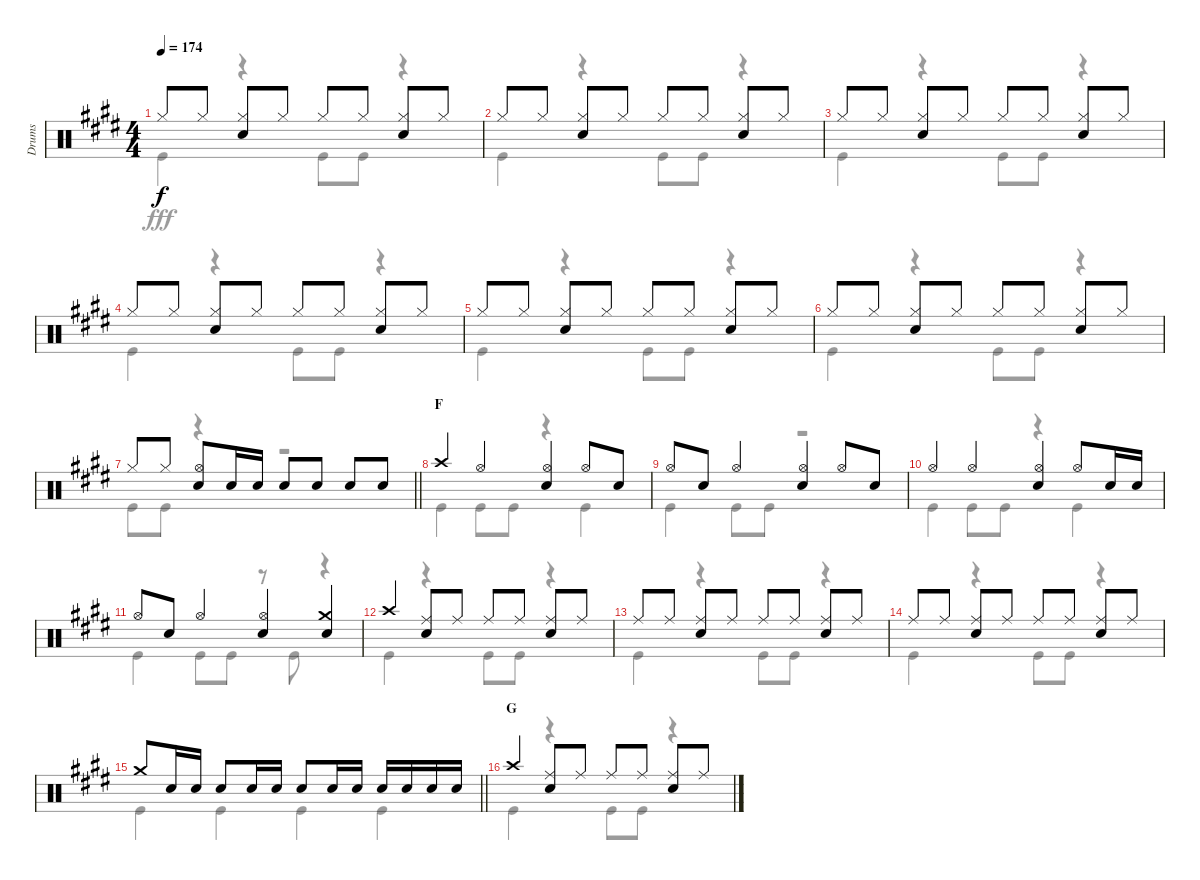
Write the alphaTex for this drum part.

\track ("Drums" "Drums") {instrument percussion}
\staff {score}
\articulation defaults
\voice
\ts (4 4)
\tempo 174
\clef neutral
\ks e "Hi-Hat (closed)".8{dy f} "Hi-Hat (closed)".8
("Hi-Hat (closed)" "Snare (hit) 2").8 "Hi-Hat (closed)".8 "Hi-Hat (closed)".8 "Hi-Hat (closed)".8 ("Hi-Hat (closed)" "Snare (hit) 2").8 "Hi-Hat (closed)".8 |
"Hi-Hat (closed)".8 "Hi-Hat (closed)".8 ("Hi-Hat (closed)" "Snare (hit) 2").8 "Hi-Hat (closed)".8 "Hi-Hat (closed)".8 "Hi-Hat (closed)".8 ("Hi-Hat (closed)" "Snare (hit) 2").8 "Hi-Hat (closed)".8 |
"Hi-Hat (closed)".8 "Hi-Hat (closed)".8 ("Hi-Hat (closed)" "Snare (hit) 2").8 "Hi-Hat (closed)".8 "Hi-Hat (closed)".8 "Hi-Hat (closed)".8 ("Hi-Hat (closed)" "Snare (hit) 2").8 "Hi-Hat (closed)".8 |
"Hi-Hat (closed)".8 "Hi-Hat (closed)".8 ("Hi-Hat (closed)" "Snare (hit) 2").8 "Hi-Hat (closed)".8 "Hi-Hat (closed)".8 "Hi-Hat (closed)".8 ("Hi-Hat (closed)" "Snare (hit) 2").8 "Hi-Hat (closed)".8 |
"Hi-Hat (closed)".8 "Hi-Hat (closed)".8 ("Hi-Hat (closed)" "Snare (hit) 2").8 "Hi-Hat (closed)".8 "Hi-Hat (closed)".8 "Hi-Hat (closed)".8 ("Hi-Hat (closed)" "Snare (hit) 2").8 "Hi-Hat (closed)".8 |
"Hi-Hat (closed)".8 "Hi-Hat (closed)".8 ("Hi-Hat (closed)" "Snare (hit) 2").8 "Hi-Hat (closed)".8 "Hi-Hat (closed)".8 "Hi-Hat (closed)".8 ("Hi-Hat (closed)" "Snare (hit) 2").8 "Hi-Hat (closed)".8 |
\barLineRight lightlight "Hi-Hat (closed)".8 "Hi-Hat (closed)".8
("Hi-Hat (open)" "Snare (hit) 2").8 "Snare (hit) 2".16 "Snare (hit) 2".16 "Snare (hit) 2".8 "Snare (hit) 2".8 "Snare (hit) 2".8 "Snare (hit) 2".8 |
\section ("" "F")
"Crash high (hit)".4 "Hi-Hat (open)".4 ("Hi-Hat (open)" "Snare (hit) 2").4 "Hi-Hat (open)".8 "Snare (hit) 2".8 |
"Hi-Hat (open)".8 "Snare (hit) 2".8 "Hi-Hat (open)".4 ("Hi-Hat (open)" "Snare (hit) 2").4 "Hi-Hat (open)".8 "Snare (hit) 2".8 |
"Hi-Hat (open)".4 "Hi-Hat (open)".4 ("Hi-Hat (open)" "Snare (hit) 2").4 "Hi-Hat (open)".8 "Snare (hit) 2".16 "Snare (hit) 2".16 |
"Hi-Hat (open)".8 "Snare (hit) 2".8 "Hi-Hat (open)".4 ("Hi-Hat (open)" "Snare (hit) 2").4 ("Crash medium (hit)" "Snare (hit) 2").4 |
"Crash high (hit)".4 ("Ride (middle)" "Snare (hit) 2").8 "Ride (middle)".8 "Ride (middle)".8 "Ride (middle)".8 ("Ride (middle)" "Snare (hit) 2").8 "Ride (middle)".8 |
"Ride (middle)".8 "Ride (middle)".8 ("Ride (middle)" "Snare (hit) 2").8 "Ride (middle)".8 "Ride (middle)".8 "Ride (middle)".8 ("Ride (middle)" "Snare (hit) 2").8 "Ride (middle)".8 |
"Ride (middle)".8 "Ride (middle)".8 ("Ride (middle)" "Snare (hit) 2").8 "Ride (middle)".8 "Ride (middle)".8 "Ride (middle)".8 ("Ride (middle)" "Snare (hit) 2").8 "Ride (middle)".8 |
\barLineRight lightlight "Crash medium (hit)".8 "Snare (hit) 2".16 "Snare (hit) 2".16 "Snare (hit) 2".8 "Snare (hit) 2".16 "Snare (hit) 2".16 "Snare (hit) 2".8 "Snare (hit) 2".16 "Snare (hit) 2".16 "Snare (hit) 2".16 "Snare (hit) 2".16 "Snare (hit) 2".16 "Snare (hit) 2".16
|
\section ("" "G")
"Crash high (hit)".4 ("Ride (middle)" "Snare (hit) 2").8 "Ride (middle)".8 "Ride (middle)".8 "Ride (middle)".8 ("Ride (middle)" "Snare (hit) 2").8 "Ride (middle)".8
\voice
\clef neutral
\ottava regular
\simile none
\ks e "Kick (hit)".4{dy fff}
r.4 "Kick (hit)".8 "Kick (hit)".8 r.4 |
"Kick (hit)".4 r.4 "Kick (hit)".8 "Kick (hit)".8 r.4 |
"Kick (hit)".4 r.4 "Kick (hit)".8 "Kick (hit)".8 r.4 |
"Kick (hit)".4 r.4 "Kick (hit)".8 "Kick (hit)".8 r.4 |
"Kick (hit)".4 r.4 "Kick (hit)".8 "Kick (hit)".8 r.4 |
"Kick (hit)".4 r.4 "Kick (hit)".8 "Kick (hit)".8 r.4 |
\barLineRight lightlight "Kick (hit)".8 "Kick (hit)".8
r.4 r.2 |
"Kick (hit)".4 "Kick (hit)".8 "Kick (hit)".8 r.4 "Kick (hit)".4 |
"Kick (hit)".4 "Kick (hit)".8 "Kick (hit)".8 r.2 |
"Kick (hit)".4 "Kick (hit)".8 "Kick (hit)".8 r.4 "Kick (hit)".4 |
"Kick (hit)".4 "Kick (hit)".8 "Kick (hit)".8 r.8 "Kick (hit)".8 r.4 |
"Kick (hit)".4 r.4 "Kick (hit)".8 "Kick (hit)".8 r.4 |
"Kick (hit)".4 r.4 "Kick (hit)".8 "Kick (hit)".8 r.4 |
"Kick (hit)".4 r.4 "Kick (hit)".8 "Kick (hit)".8 r.4 |
\barLineRight lightlight "Kick (hit)".4 "Kick (hit)".4 "Kick (hit)".4 "Kick (hit)".4
|
"Kick (hit)".4 r.4 "Kick (hit)".8 "Kick (hit)".8 r.4
